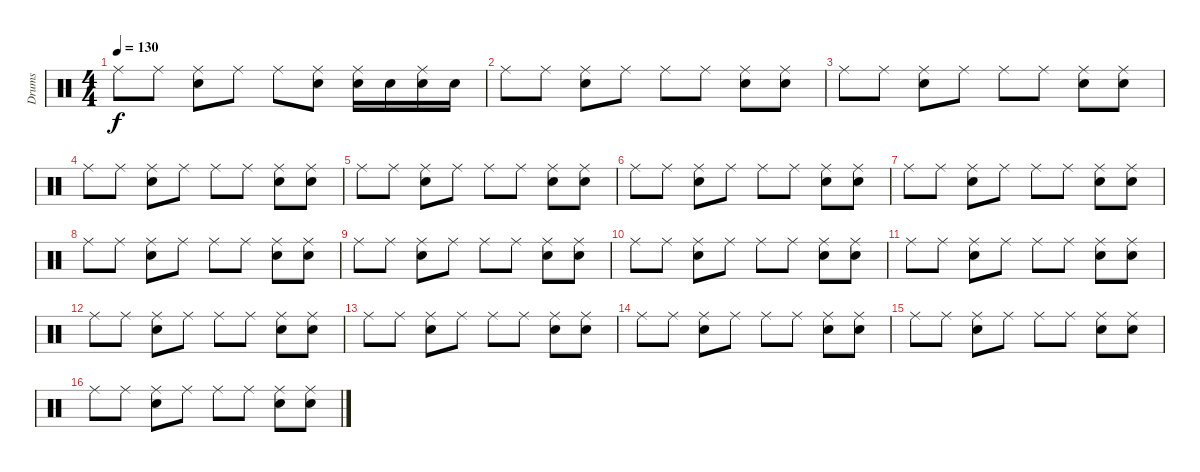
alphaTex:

\track ("Drums" "Drums") {instrument percussion}
\staff {score}
\articulation defaults
\ts (4 4)
\tempo 130
\clef neutral
\ks c "Ride (middle)".8{dy f} "Ride (middle)".8
("Ride (middle)" "Snare (hit) 2").8 "Ride (middle)".8 "Ride (middle)".8 ("Ride (middle)" "Snare (hit) 2").8 ("Ride (middle)" "Snare (hit) 2").16 "Snare (hit) 2".16 ("Ride (middle)" "Snare (hit) 2").16 "Snare (hit) 2".16 |
"Ride (middle)".8 "Ride (middle)".8 ("Ride (middle)" "Snare (hit) 2").8 "Ride (middle)".8 "Ride (middle)".8 "Ride (middle)".8 ("Ride (middle)" "Snare (hit) 2").8 ("Ride (middle)" "Snare (hit) 2").8 |
"Ride (middle)".8 "Ride (middle)".8 ("Ride (middle)" "Snare (hit) 2").8 "Ride (middle)".8 "Ride (middle)".8 "Ride (middle)".8 ("Ride (middle)" "Snare (hit) 2").8 ("Ride (middle)" "Snare (hit) 2").8 |
"Ride (middle)".8 "Ride (middle)".8 ("Ride (middle)" "Snare (hit) 2").8 "Ride (middle)".8 "Ride (middle)".8 "Ride (middle)".8 ("Ride (middle)" "Snare (hit) 2").8 ("Ride (middle)" "Snare (hit) 2").8 |
"Ride (middle)".8 "Ride (middle)".8 ("Ride (middle)" "Snare (hit) 2").8 "Ride (middle)".8 "Ride (middle)".8 "Ride (middle)".8 ("Ride (middle)" "Snare (hit) 2").8 ("Ride (middle)" "Snare (hit) 2").8 |
"Ride (middle)".8 "Ride (middle)".8 ("Ride (middle)" "Snare (hit) 2").8 "Ride (middle)".8 "Ride (middle)".8 "Ride (middle)".8 ("Ride (middle)" "Snare (hit) 2").8 ("Ride (middle)" "Snare (hit) 2").8 |
"Ride (middle)".8 "Ride (middle)".8 ("Ride (middle)" "Snare (hit) 2").8 "Ride (middle)".8 "Ride (middle)".8 "Ride (middle)".8 ("Ride (middle)" "Snare (hit) 2").8 ("Ride (middle)" "Snare (hit) 2").8 |
"Ride (middle)".8 "Ride (middle)".8 ("Ride (middle)" "Snare (hit) 2").8 "Ride (middle)".8 "Ride (middle)".8 "Ride (middle)".8 ("Ride (middle)" "Snare (hit) 2").8 ("Ride (middle)" "Snare (hit) 2").8 |
"Ride (middle)".8 "Ride (middle)".8 ("Ride (middle)" "Snare (hit) 2").8 "Ride (middle)".8 "Ride (middle)".8 "Ride (middle)".8 ("Ride (middle)" "Snare (hit) 2").8 ("Ride (middle)" "Snare (hit) 2").8 |
"Ride (middle)".8 "Ride (middle)".8 ("Ride (middle)" "Snare (hit) 2").8 "Ride (middle)".8 "Ride (middle)".8 "Ride (middle)".8 ("Ride (middle)" "Snare (hit) 2").8 ("Ride (middle)" "Snare (hit) 2").8 |
"Ride (middle)".8 "Ride (middle)".8 ("Ride (middle)" "Snare (hit) 2").8 "Ride (middle)".8 "Ride (middle)".8 "Ride (middle)".8 ("Ride (middle)" "Snare (hit) 2").8 ("Ride (middle)" "Snare (hit) 2").8 |
"Ride (middle)".8 "Ride (middle)".8 ("Ride (middle)" "Snare (hit) 2").8 "Ride (middle)".8 "Ride (middle)".8 "Ride (middle)".8 ("Ride (middle)" "Snare (hit) 2").8 ("Ride (middle)" "Snare (hit) 2").8 |
"Ride (middle)".8 "Ride (middle)".8 ("Ride (middle)" "Snare (hit) 2").8 "Ride (middle)".8 "Ride (middle)".8 "Ride (middle)".8 ("Ride (middle)" "Snare (hit) 2").8 ("Ride (middle)" "Snare (hit) 2").8 |
"Ride (middle)".8 "Ride (middle)".8 ("Ride (middle)" "Snare (hit) 2").8 "Ride (middle)".8 "Ride (middle)".8 "Ride (middle)".8 ("Ride (middle)" "Snare (hit) 2").8 ("Ride (middle)" "Snare (hit) 2").8 |
"Ride (middle)".8 "Ride (middle)".8 ("Ride (middle)" "Snare (hit) 2").8 "Ride (middle)".8 "Ride (middle)".8 "Ride (middle)".8 ("Ride (middle)" "Snare (hit) 2").8 ("Ride (middle)" "Snare (hit) 2").8 |
"Ride (middle)".8 "Ride (middle)".8 ("Ride (middle)" "Snare (hit) 2").8 "Ride (middle)".8 "Ride (middle)".8 "Ride (middle)".8 ("Ride (middle)" "Snare (hit) 2").8 ("Ride (middle)" "Snare (hit) 2").8
